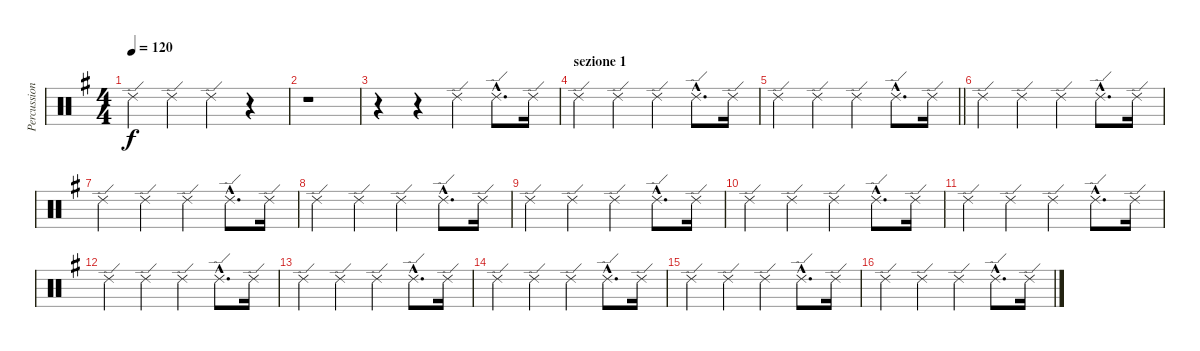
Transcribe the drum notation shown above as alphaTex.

\track ("Percussioni" "Percussion") {instrument percussion}
\staff {score}
\articulation defaults
\ts (4 4)
\tempo 120
\clef neutral
\ks eminor "Ride (edge) 2".4{dy f} "Ride (edge) 2".4 "Ride (edge) 2".4
r.4 |
r.1 |
r.4 r.4 "Ride (edge) 2".4 "Ride (edge) 2"{hac}.8{d} "Ride (edge) 2".16 |
\section ("" "sezione 1")
"Ride (edge) 2".4 "Ride (edge) 2".4 "Ride (edge) 2".4 "Ride (edge) 2"{hac}.8{d} "Ride (edge) 2".16 |
\barLineRight lightlight "Ride (edge) 2".4 "Ride (edge) 2".4 "Ride (edge) 2".4 "Ride (edge) 2"{hac}.8{d} "Ride (edge) 2".16
|
"Ride (edge) 2".4 "Ride (edge) 2".4 "Ride (edge) 2".4 "Ride (edge) 2"{hac}.8{d} "Ride (edge) 2".16 |
"Ride (edge) 2".4 "Ride (edge) 2".4 "Ride (edge) 2".4 "Ride (edge) 2"{hac}.8{d} "Ride (edge) 2".16 |
"Ride (edge) 2".4 "Ride (edge) 2".4 "Ride (edge) 2".4 "Ride (edge) 2"{hac}.8{d} "Ride (edge) 2".16 |
"Ride (edge) 2".4 "Ride (edge) 2".4 "Ride (edge) 2".4 "Ride (edge) 2"{hac}.8{d} "Ride (edge) 2".16 |
"Ride (edge) 2".4 "Ride (edge) 2".4 "Ride (edge) 2".4 "Ride (edge) 2"{hac}.8{d} "Ride (edge) 2".16 |
"Ride (edge) 2".4 "Ride (edge) 2".4 "Ride (edge) 2".4 "Ride (edge) 2"{hac}.8{d} "Ride (edge) 2".16 |
"Ride (edge) 2".4 "Ride (edge) 2".4 "Ride (edge) 2".4 "Ride (edge) 2"{hac}.8{d} "Ride (edge) 2".16 |
"Ride (edge) 2".4 "Ride (edge) 2".4 "Ride (edge) 2".4 "Ride (edge) 2"{hac}.8{d} "Ride (edge) 2".16 |
"Ride (edge) 2".4 "Ride (edge) 2".4 "Ride (edge) 2".4 "Ride (edge) 2"{hac}.8{d} "Ride (edge) 2".16 |
"Ride (edge) 2".4 "Ride (edge) 2".4 "Ride (edge) 2".4 "Ride (edge) 2"{hac}.8{d} "Ride (edge) 2".16 |
"Ride (edge) 2".4 "Ride (edge) 2".4 "Ride (edge) 2".4 "Ride (edge) 2"{hac}.8{d} "Ride (edge) 2".16
